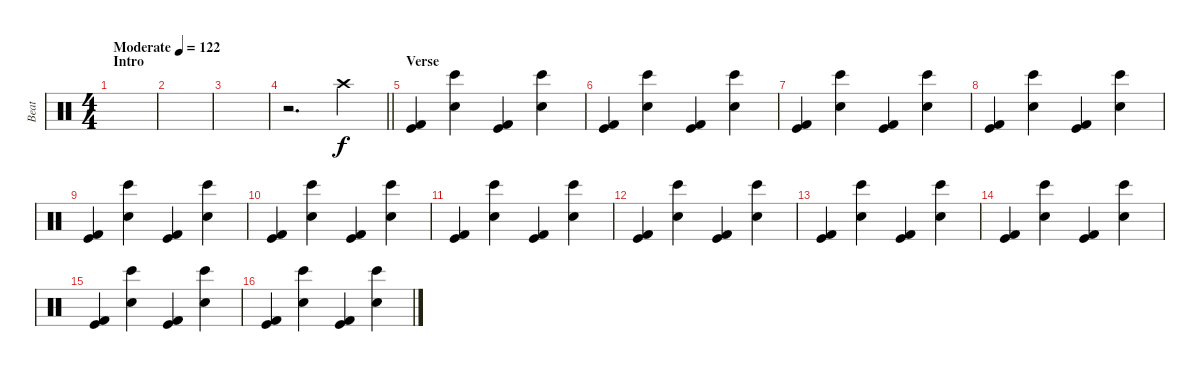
\track ("Beat" "Beat") {instrument percussion}
\staff {score}
\articulation defaults
\ts (4 4)
\section ("" "Intro")
\tempo (122 "Moderate")
\clef neutral
\ks c
|
|
|
\barLineRight lightlight
r.2{d volume 0} "Crash high (hit)".4{volume 13} |
\section ("" "Verse")
("Kick (hit)" "Kick (hit) 2").4 ("Bongo High (hit)" "Electric Snare (hit)").4 ("Kick (hit)" "Kick (hit) 2").4 ("Bongo High (hit)" "Electric Snare (hit)").4 |
("Kick (hit)" "Kick (hit) 2").4 ("Bongo High (hit)" "Electric Snare (hit)").4 ("Kick (hit)" "Kick (hit) 2").4 ("Bongo High (hit)" "Electric Snare (hit)").4 |
("Kick (hit)" "Kick (hit) 2").4 ("Bongo High (hit)" "Electric Snare (hit)").4 ("Kick (hit)" "Kick (hit) 2").4 ("Bongo High (hit)" "Electric Snare (hit)").4 |
("Kick (hit)" "Kick (hit) 2").4 ("Bongo High (hit)" "Electric Snare (hit)").4 ("Kick (hit)" "Kick (hit) 2").4 ("Bongo High (hit)" "Electric Snare (hit)").4 |
("Kick (hit)" "Kick (hit) 2").4 ("Bongo High (hit)" "Electric Snare (hit)").4 ("Kick (hit)" "Kick (hit) 2").4 ("Bongo High (hit)" "Electric Snare (hit)").4 |
("Kick (hit)" "Kick (hit) 2").4 ("Bongo High (hit)" "Electric Snare (hit)").4 ("Kick (hit)" "Kick (hit) 2").4 ("Bongo High (hit)" "Electric Snare (hit)").4 |
("Kick (hit)" "Kick (hit) 2").4 ("Bongo High (hit)" "Electric Snare (hit)").4 ("Kick (hit)" "Kick (hit) 2").4 ("Bongo High (hit)" "Electric Snare (hit)").4 |
("Kick (hit)" "Kick (hit) 2").4 ("Bongo High (hit)" "Electric Snare (hit)").4 ("Kick (hit)" "Kick (hit) 2").4 ("Bongo High (hit)" "Electric Snare (hit)").4 |
("Kick (hit)" "Kick (hit) 2").4 ("Bongo High (hit)" "Electric Snare (hit)").4 ("Kick (hit)" "Kick (hit) 2").4 ("Bongo High (hit)" "Electric Snare (hit)").4 |
("Kick (hit)" "Kick (hit) 2").4 ("Bongo High (hit)" "Electric Snare (hit)").4 ("Kick (hit)" "Kick (hit) 2").4 ("Bongo High (hit)" "Electric Snare (hit)").4 |
("Kick (hit)" "Kick (hit) 2").4 ("Bongo High (hit)" "Electric Snare (hit)").4 ("Kick (hit)" "Kick (hit) 2").4 ("Bongo High (hit)" "Electric Snare (hit)").4 |
("Kick (hit)" "Kick (hit) 2").4 ("Bongo High (hit)" "Electric Snare (hit)").4 ("Kick (hit)" "Kick (hit) 2").4 ("Bongo High (hit)" "Electric Snare (hit)").4
